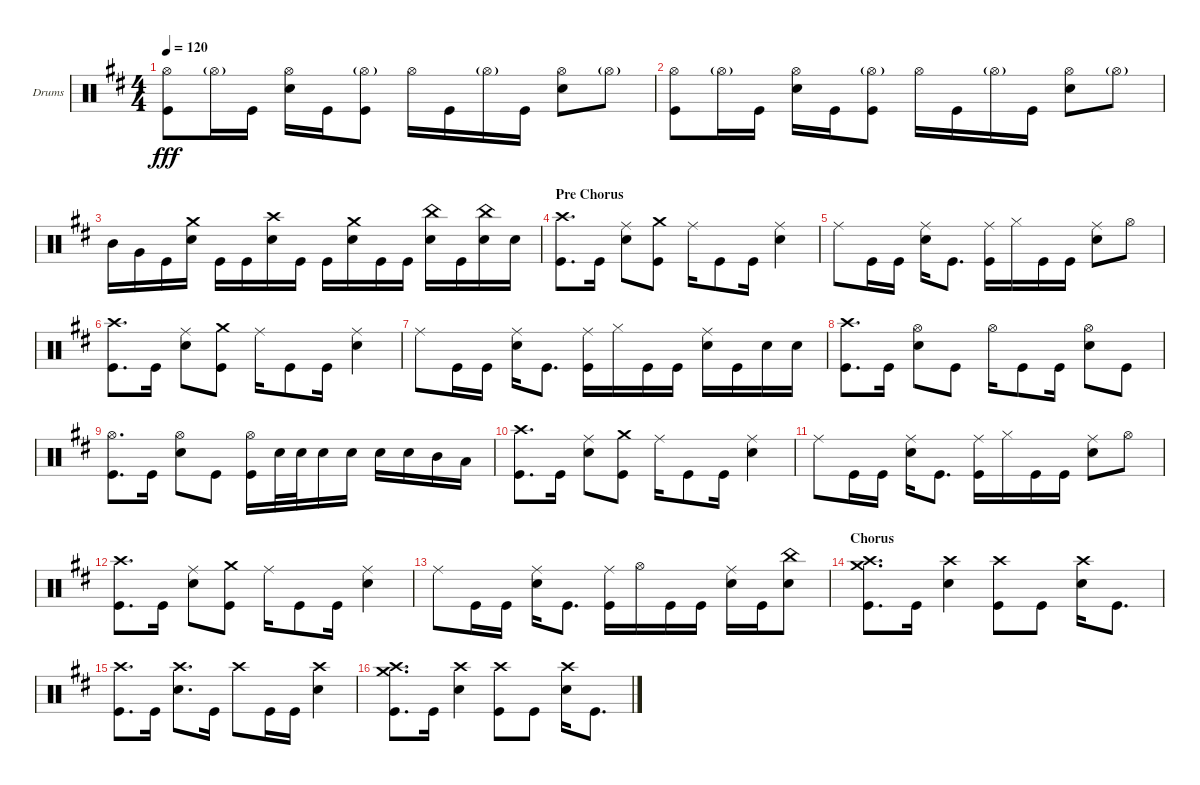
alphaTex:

\defaultSystemsLayout 4
\bracketExtendMode groupsimilarinstruments
\firstSystemTrackNameOrientation horizontal
\otherSystemsTrackNameOrientation horizontal
\track ("Garrett" "Drums") {instrument percussion}
\staff {score}
\articulation defaults
\ts (4 4)
\tempo 120
\clef neutral
\ks bminor
("Kick (hit)" "Hi-Hat (open)").8{dy fff} "Hi-Hat (open)"{g}.16 "Kick (hit)".16 ("Snare (hit) 2" "Hi-Hat (open)").16 "Kick (hit)".16 ("Hi-Hat (open)"{g} "Kick (hit)").8 "Hi-Hat (open)".16 "Kick (hit)".16 "Hi-Hat (open)"{g}.16 "Kick (hit)".16 ("Snare (hit) 2" "Hi-Hat (open)").8 "Hi-Hat (open)"{g}.8 |
("Kick (hit)" "Hi-Hat (open)").8 "Hi-Hat (open)"{g}.16 "Kick (hit)".16 ("Snare (hit) 2" "Hi-Hat (open)").16 "Kick (hit)".16 ("Hi-Hat (open)"{g} "Kick (hit)").8 "Hi-Hat (open)".16 "Kick (hit)".16 "Hi-Hat (open)"{g}.16 "Kick (hit)".16 ("Snare (hit) 2" "Hi-Hat (open)").8 "Hi-Hat (open)"{g}.8 |
"Mid Tom (hit)".16 "Very Low Tom (hit)".16 "Kick (hit)".16 ("Snare (hit) 2" "Crash medium (hit)").16 "Kick (hit)".16 "Kick (hit)".16 ("Snare (hit) 2" "Crash high (hit)").16 "Kick (hit)".16 "Kick (hit)".16 ("Snare (hit) 2" "Crash medium (hit)").16 "Kick (hit)".16 "Kick (hit)".16 ("Snare (hit) 2" "China (hit)").16 "Kick (hit)".16 ("Snare (hit) 2" "China (hit)").16 "Snare (hit) 2".16 |
\section ("" "Pre Chorus")
("Crash high (hit)" "Kick (hit)").8{d} "Kick (hit)".16 ("Snare (hit) 2" "Ride (middle)").8 ("Kick (hit)" "Crash medium (hit)").8 "Ride (middle)".16 "Kick (hit)".8 "Kick (hit)".16 ("Snare (hit) 2" "Ride (middle)").4 |
"Ride (middle)".8 "Kick (hit)".16 "Kick (hit)".16 ("Snare (hit) 2" "Ride (middle)").16 "Kick (hit)".8{d} ("Ride (middle)" "Kick (hit)").16 "Hi-Hat (closed)".16 "Kick (hit)".16 "Kick (hit)".16 ("Snare (hit) 2" "Ride (middle)").8 "Hi-Hat (open)".8 |
("Crash high (hit)" "Kick (hit)").8{d} "Kick (hit)".16 ("Snare (hit) 2" "Ride (middle)").8 ("Kick (hit)" "Crash medium (hit)").8 "Ride (middle)".16 "Kick (hit)".8 "Kick (hit)".16 ("Snare (hit) 2" "Ride (middle)").4 |
"Ride (middle)".8 "Kick (hit)".16 "Kick (hit)".16 ("Snare (hit) 2" "Ride (middle)").16 "Kick (hit)".8{d} ("Ride (middle)" "Kick (hit)").16 "Hi-Hat (closed)".16 "Kick (hit)".16 "Kick (hit)".16 ("Snare (hit) 2" "Ride (middle)").16 "Kick (hit)".16 "Snare (hit) 2".16 "Snare (hit) 2".16 |
("Crash high (hit)" "Kick (hit)").8{d} "Kick (hit)".16 ("Snare (hit) 2" "Hi-Hat (open)").8 "Kick (hit)".8 "Hi-Hat (open)".16 "Kick (hit)".8 "Kick (hit)".16 ("Snare (hit) 2" "Hi-Hat (open)").8 "Kick (hit)".8 |
("Kick (hit)" "Hi-Hat (open)").8{d} "Kick (hit)".16 ("Snare (hit) 2" "Hi-Hat (open)").8 "Kick (hit)".8 ("Kick (hit)" "Hi-Hat (open)").16 "Snare (hit) 2".32 "Snare (hit) 2".32 "Snare (hit) 2".16 "Snare (hit) 2".16 "Snare (hit) 2".16 "Snare (hit) 2".16 "Mid Tom (hit)".16 "Low Tom (hit)".16 |
("Crash high (hit)" "Kick (hit)").8{d} "Kick (hit)".16 ("Snare (hit) 2" "Ride (middle)").8 ("Kick (hit)" "Crash medium (hit)").8 "Ride (middle)".16 "Kick (hit)".8 "Kick (hit)".16 ("Snare (hit) 2" "Ride (middle)").4 |
"Ride (middle)".8 "Kick (hit)".16 "Kick (hit)".16 ("Snare (hit) 2" "Ride (middle)").16 "Kick (hit)".8{d} ("Ride (middle)" "Kick (hit)").16 "Hi-Hat (closed)".16 "Kick (hit)".16 "Kick (hit)".16 ("Snare (hit) 2" "Ride (middle)").8 "Hi-Hat (open)".8 |
("Crash high (hit)" "Kick (hit)").8{d} "Kick (hit)".16 ("Snare (hit) 2" "Ride (middle)").8 ("Kick (hit)" "Crash medium (hit)").8 "Ride (middle)".16 "Kick (hit)".8 "Kick (hit)".16 ("Snare (hit) 2" "Ride (middle)").4 |
"Ride (middle)".8 "Kick (hit)".16 "Kick (hit)".16 ("Snare (hit) 2" "Ride (middle)").16 "Kick (hit)".8{d} ("Ride (middle)" "Kick (hit)").16 "Hi-Hat (open)".16 "Kick (hit)".16 "Kick (hit)".16 ("Snare (hit) 2" "Ride (middle)").16 "Kick (hit)".16 ("Snare (hit) 2" "China (hit)").8 |
\section ("" "Chorus")
("Crash high (hit)" "Kick (hit)" "Crash medium (hit)").8{d} "Kick (hit)".16 ("Snare (hit) 2" "Crash high (hit)").4 ("Crash high (hit)" "Kick (hit)").8 "Kick (hit)".8 ("Snare (hit) 2" "Crash high (hit)").16 "Kick (hit)".8{d} |
("Crash high (hit)" "Kick (hit)").8{d} "Kick (hit)".16 ("Snare (hit) 2" "Crash high (hit)").8{d} "Kick (hit)".16 "Crash high (hit)".8 "Kick (hit)".16 "Kick (hit)".16 ("Snare (hit) 2" "Crash high (hit)").4 |
("Crash high (hit)" "Kick (hit)" "Crash medium (hit)").8{d} "Kick (hit)".16 ("Snare (hit) 2" "Crash high (hit)").4 ("Crash high (hit)" "Kick (hit)").8 "Kick (hit)".8 ("Snare (hit) 2" "Crash high (hit)").16 "Kick (hit)".8{d}
